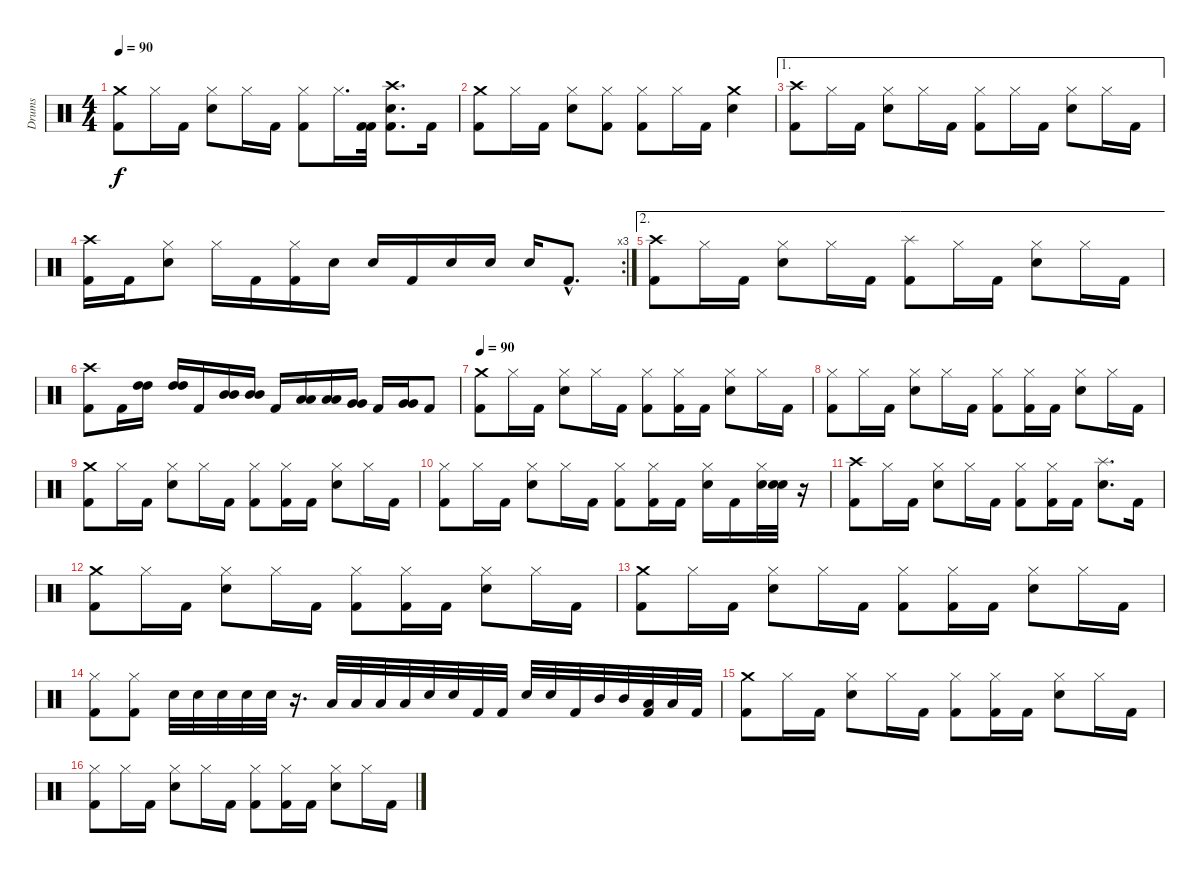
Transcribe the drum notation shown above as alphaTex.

\track ("Drums" "Drums") {instrument percussion}
\staff {score}
\articulation defaults
\ts (4 4)
\tempo 90
\clef neutral
\ks c
("Crash medium (hit)" "Kick (hit) 2").8{dy f} "Hi-Hat (closed)".16 "Kick (hit) 2".16 ("Hi-Hat (closed)" "Electric Snare (hit)").8 "Hi-Hat (closed)".16 "Kick (hit) 2".16 ("Hi-Hat (closed)" "Kick (hit) 2").8 "Hi-Hat (closed)".16{d} ("Kick (hit) 2" "Kick (hit) 2").32 ("Kick (hit) 2" "Crash high (hit)" "Electric Snare (hit)").8{d} "Kick (hit) 2".16 |
("Crash medium (hit)" "Kick (hit) 2").8 "Hi-Hat (closed)".16 "Kick (hit) 2".16 ("Hi-Hat (closed)" "Electric Snare (hit)").8 ("Hi-Hat (closed)" "Kick (hit) 2").8 ("Hi-Hat (closed)" "Kick (hit) 2").8 "Hi-Hat (closed)".16 "Kick (hit) 2".16 ("Crash medium (hit)" "Electric Snare (hit)").4 |
\ae 1
("Crash high (hit)" "Kick (hit) 2").8 "Hi-Hat (closed)".16 "Kick (hit) 2".16 ("Hi-Hat (closed)" "Electric Snare (hit)").8 "Hi-Hat (closed)".16 "Kick (hit) 2".16 ("Hi-Hat (closed)" "Kick (hit) 2").8 "Hi-Hat (closed)".16 "Kick (hit) 2".16 ("Hi-Hat (closed)" "Electric Snare (hit)").8 "Hi-Hat (closed)".16 "Kick (hit) 2".16 |
\rc 3
("Crash high (hit)" "Kick (hit) 2").16 "Kick (hit) 2".16 ("Hi-Hat (closed)" "Electric Snare (hit)").8 "Hi-Hat (closed)".16 "Kick (hit) 2".16 ("Hi-Hat (closed)" "Kick (hit) 2").16 "Electric Snare (hit)".16 "Electric Snare (hit)".16 "Kick (hit) 2".16 "Electric Snare (hit)".16 "Electric Snare (hit)".16 "Electric Snare (hit)".16 "Kick (hit) 2"{hac}.8{d} |
\ae 2
("Crash high (hit)" "Kick (hit) 2").8 "Hi-Hat (closed)".16 "Kick (hit) 2".16 ("Hi-Hat (closed)" "Electric Snare (hit)").8 "Hi-Hat (closed)".16 "Kick (hit) 2".16 ("Splash (hit)" "Kick (hit) 2").8 "Hi-Hat (closed)".16 "Kick (hit) 2".16 ("Hi-Hat (closed)" "Electric Snare (hit)").8 "Hi-Hat (closed)".16 "Kick (hit) 2".16 |
("Crash high (hit)" "Kick (hit) 2").8 "Kick (hit) 2".16 ("High Tom (hit)" "High Tom (hit)").16 ("High Tom (hit)" "High Tom (hit)").16 "Kick (hit) 2".16 ("Mid Tom (hit)" "Mid Tom (hit)").16 ("Mid Tom (hit)" "Mid Tom (hit)").16 "Kick (hit) 2".16 ("Low Tom (hit)" "Low Tom (hit)").16 ("Low Tom (hit)" "Low Tom (hit)").16 ("Very Low Tom (hit)" "Very Low Tom (hit)").16 "Kick (hit) 2".16 ("Very Low Tom (hit)" "Very Low Tom (hit)").16 "Kick (hit) 2".8 |
\tempo 90
("Crash medium (hit)" "Kick (hit) 2").8 "Hi-Hat (closed)".16 "Kick (hit) 2".16 ("Hi-Hat (closed)" "Electric Snare (hit)").8 "Hi-Hat (closed)".16 "Kick (hit) 2".16 ("Hi-Hat (closed)" "Kick (hit) 2").8 ("Hi-Hat (closed)" "Kick (hit) 2").16 "Kick (hit) 2".16 ("Hi-Hat (closed)" "Electric Snare (hit)").8 "Hi-Hat (closed)".16 "Kick (hit) 2".16 |
("Hi-Hat (closed)" "Kick (hit) 2").8 "Hi-Hat (closed)".16 "Kick (hit) 2".16 ("Hi-Hat (closed)" "Electric Snare (hit)").8 "Hi-Hat (closed)".16 "Kick (hit) 2".16 ("Hi-Hat (closed)" "Kick (hit) 2").8 ("Hi-Hat (closed)" "Kick (hit) 2").16 "Kick (hit) 2".16 ("Hi-Hat (closed)" "Electric Snare (hit)").8 "Hi-Hat (closed)".16 "Kick (hit) 2".16 |
("Crash medium (hit)" "Kick (hit) 2").8 "Hi-Hat (closed)".16 "Kick (hit) 2".16 ("Hi-Hat (closed)" "Electric Snare (hit)").8 "Hi-Hat (closed)".16 "Kick (hit) 2".16 ("Hi-Hat (closed)" "Kick (hit) 2").8 ("Hi-Hat (closed)" "Kick (hit) 2").16 "Kick (hit) 2".16 ("Hi-Hat (closed)" "Electric Snare (hit)").8 "Hi-Hat (closed)".16 "Kick (hit) 2".16 |
("Hi-Hat (closed)" "Kick (hit) 2").8 "Hi-Hat (closed)".16 "Kick (hit) 2".16 ("Hi-Hat (closed)" "Electric Snare (hit)").8 "Hi-Hat (closed)".16 "Kick (hit) 2".16 ("Hi-Hat (closed)" "Kick (hit) 2").8 ("Hi-Hat (closed)" "Kick (hit) 2").16 "Kick (hit) 2".16 ("Hi-Hat (closed)" "Electric Snare (hit)").16 "Kick (hit) 2".16 ("Hi-Hat (closed)" "Electric Snare (hit)").32 ("Electric Snare (hit)" "Electric Snare (hit)").32 r.16 |
("Crash high (hit)" "Kick (hit) 2").8 "Hi-Hat (closed)".16 "Kick (hit) 2".16 ("Hi-Hat (closed)" "Electric Snare (hit)").8 "Hi-Hat (closed)".16 "Kick (hit) 2".16 ("Hi-Hat (closed)" "Kick (hit) 2").8 ("Hi-Hat (closed)" "Kick (hit) 2").16 "Kick (hit) 2".16 ("Splash (hit)" "Electric Snare (hit)").8{d} "Kick (hit) 2".16 |
("Crash medium (hit)" "Kick (hit) 2").8 "Hi-Hat (closed)".16 "Kick (hit) 2".16 ("Hi-Hat (closed)" "Electric Snare (hit)").8 "Hi-Hat (closed)".16 "Kick (hit) 2".16 ("Hi-Hat (closed)" "Kick (hit) 2").8 ("Hi-Hat (closed)" "Kick (hit) 2").16 "Kick (hit) 2".16 ("Hi-Hat (closed)" "Electric Snare (hit)").8 "Hi-Hat (closed)".16 "Kick (hit) 2".16 |
("Crash medium (hit)" "Kick (hit) 2").8 "Hi-Hat (closed)".16 "Kick (hit) 2".16 ("Hi-Hat (closed)" "Electric Snare (hit)").8 "Hi-Hat (closed)".16 "Kick (hit) 2".16 ("Hi-Hat (closed)" "Kick (hit) 2").8 ("Hi-Hat (closed)" "Kick (hit) 2").16 "Kick (hit) 2".16 ("Hi-Hat (closed)" "Electric Snare (hit)").8 "Hi-Hat (closed)".16 "Kick (hit) 2".16 |
("Hi-Hat (closed)" "Kick (hit) 2").8 ("Hi-Hat (closed)" "Kick (hit) 2").8 "Electric Snare (hit)".32 "Electric Snare (hit)".32 "Electric Snare (hit)".32 "Electric Snare (hit)".32 "Electric Snare (hit)".32 r.16{d} "Low Tom (hit)".32 "Low Tom (hit)".32 "Low Tom (hit)".32 "Low Tom (hit)".32 "Electric Snare (hit)".32 "Electric Snare (hit)".32 "Kick (hit) 2".32 "Kick (hit) 2".32 "Electric Snare (hit)".32 "Electric Snare (hit)".32 "Kick (hit) 2".32 "Mid Tom (hit)".32 "Mid Tom (hit)".32 ("Kick (hit) 2" "Low Tom (hit)").32 "Low Tom (hit)".32 "Kick (hit) 2".32 |
("Crash medium (hit)" "Kick (hit) 2").8 "Hi-Hat (closed)".16 "Kick (hit) 2".16 ("Hi-Hat (closed)" "Electric Snare (hit)").8 "Hi-Hat (closed)".16 "Kick (hit) 2".16 ("Hi-Hat (closed)" "Kick (hit) 2").8 ("Hi-Hat (closed)" "Kick (hit) 2").16 "Kick (hit) 2".16 ("Hi-Hat (closed)" "Electric Snare (hit)").8 "Hi-Hat (closed)".16 "Kick (hit) 2".16 |
("Hi-Hat (closed)" "Kick (hit) 2").8 "Hi-Hat (closed)".16 "Kick (hit) 2".16 ("Hi-Hat (closed)" "Electric Snare (hit)").8 "Hi-Hat (closed)".16 "Kick (hit) 2".16 ("Hi-Hat (closed)" "Kick (hit) 2").8 ("Hi-Hat (closed)" "Kick (hit) 2").16 "Kick (hit) 2".16 ("Hi-Hat (closed)" "Electric Snare (hit)").8 "Hi-Hat (closed)".16 "Kick (hit) 2".16
